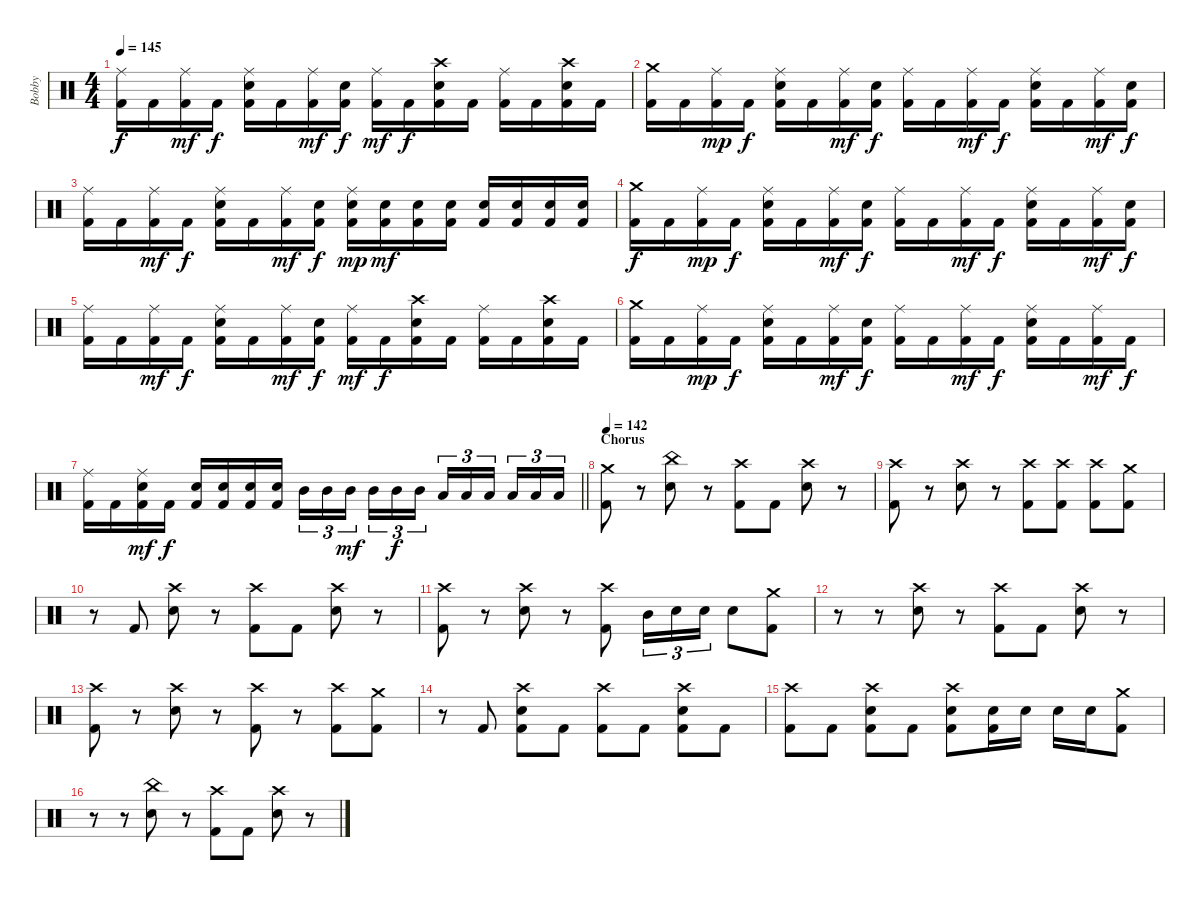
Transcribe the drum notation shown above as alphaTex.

\track ("Bobby" "Bobby") {instrument percussion}
\staff {score}
\articulation defaults
\ts (4 4)
\tempo 145
\clef neutral
\ks c
("Ride (middle)" "Kick (hit) 2").16{dy f} "Kick (hit) 2".16 ("Ride (middle)" "Kick (hit) 2").16{dy mf} "Kick (hit) 2".16{dy f} ("Ride (middle)" "Electric Snare (hit)" "Kick (hit) 2").16 "Kick (hit) 2".16 ("Ride (middle)" "Kick (hit) 2").16{dy mf} ("Electric Snare (hit)" "Kick (hit) 2").16{dy f} ("Ride (middle)" "Kick (hit) 2").16{dy mf} "Kick (hit) 2".16{dy f} ("Crash high (hit)" "Electric Snare (hit)" "Kick (hit) 2").16 "Kick (hit) 2".16 ("Ride (middle)" "Kick (hit) 2").16 "Kick (hit) 2".16 ("Crash high (hit)" "Electric Snare (hit)" "Kick (hit) 2").16 "Kick (hit) 2".16 |
("Crash medium (hit)" "Kick (hit) 2").16 "Kick (hit) 2".16 ("Ride (middle)" "Kick (hit) 2").16{dy mp} "Kick (hit) 2".16{dy f} ("Ride (middle)" "Electric Snare (hit)" "Kick (hit) 2").16 "Kick (hit) 2".16 ("Ride (middle)" "Kick (hit) 2").16{dy mf} ("Electric Snare (hit)" "Kick (hit) 2").16{dy f} ("Ride (middle)" "Kick (hit) 2").16 "Kick (hit) 2".16 ("Ride (middle)" "Kick (hit) 2").16{dy mf} "Kick (hit) 2".16{dy f} ("Ride (middle)" "Electric Snare (hit)" "Kick (hit) 2").16 "Kick (hit) 2".16 ("Ride (middle)" "Kick (hit) 2").16{dy mf} ("Electric Snare (hit)" "Kick (hit) 2").16{dy f} |
("Ride (middle)" "Kick (hit) 2").16 "Kick (hit) 2".16 ("Ride (middle)" "Kick (hit) 2").16{dy mf} "Kick (hit) 2".16{dy f} ("Ride (middle)" "Electric Snare (hit)" "Kick (hit) 2").16 "Kick (hit) 2".16 ("Ride (middle)" "Kick (hit) 2").16{dy mf} ("Electric Snare (hit)" "Kick (hit) 2").16{dy f} ("Ride (middle)" "Electric Snare (hit)" "Kick (hit) 2").16{dy mp} ("Electric Snare (hit)" "Kick (hit) 2").16{dy mf} ("Electric Snare (hit)" "Kick (hit) 2").16 ("Electric Snare (hit)" "Kick (hit) 2").16 ("Electric Snare (hit)" "Kick (hit) 2").16 ("Electric Snare (hit)" "Kick (hit) 2").16 ("Electric Snare (hit)" "Kick (hit) 2").16 ("Electric Snare (hit)" "Kick (hit) 2").16 |
("Crash medium (hit)" "Kick (hit) 2").16{dy f} "Kick (hit) 2".16 ("Ride (middle)" "Kick (hit) 2").16{dy mp} "Kick (hit) 2".16{dy f} ("Ride (middle)" "Electric Snare (hit)" "Kick (hit) 2").16 "Kick (hit) 2".16 ("Ride (middle)" "Kick (hit) 2").16{dy mf} ("Electric Snare (hit)" "Kick (hit) 2").16{dy f} ("Ride (middle)" "Kick (hit) 2").16 "Kick (hit) 2".16 ("Ride (middle)" "Kick (hit) 2").16{dy mf} "Kick (hit) 2".16{dy f} ("Ride (middle)" "Electric Snare (hit)" "Kick (hit) 2").16 "Kick (hit) 2".16 ("Ride (middle)" "Kick (hit) 2").16{dy mf} ("Electric Snare (hit)" "Kick (hit) 2").16{dy f} |
("Ride (middle)" "Kick (hit) 2").16 "Kick (hit) 2".16 ("Ride (middle)" "Kick (hit) 2").16{dy mf} "Kick (hit) 2".16{dy f} ("Ride (middle)" "Electric Snare (hit)" "Kick (hit) 2").16 "Kick (hit) 2".16 ("Ride (middle)" "Kick (hit) 2").16{dy mf} ("Electric Snare (hit)" "Kick (hit) 2").16{dy f} ("Ride (middle)" "Kick (hit) 2").16{dy mf} "Kick (hit) 2".16{dy f} ("Crash high (hit)" "Electric Snare (hit)" "Kick (hit) 2").16 "Kick (hit) 2".16 ("Ride (middle)" "Kick (hit) 2").16 "Kick (hit) 2".16 ("Crash high (hit)" "Electric Snare (hit)" "Kick (hit) 2").16 "Kick (hit) 2".16 |
("Crash medium (hit)" "Kick (hit) 2").16 "Kick (hit) 2".16 ("Ride (middle)" "Kick (hit) 2").16{dy mp} "Kick (hit) 2".16{dy f} ("Ride (middle)" "Electric Snare (hit)" "Kick (hit) 2").16 "Kick (hit) 2".16 ("Ride (middle)" "Kick (hit) 2").16{dy mf} ("Electric Snare (hit)" "Kick (hit) 2").16{dy f} ("Ride (middle)" "Kick (hit) 2").16 "Kick (hit) 2".16 ("Ride (middle)" "Kick (hit) 2").16{dy mf} "Kick (hit) 2".16{dy f} ("Ride (middle)" "Electric Snare (hit)" "Kick (hit) 2").16 "Kick (hit) 2".16 ("Ride (middle)" "Kick (hit) 2").16{dy mf} "Kick (hit) 2".16{dy f} |
\barLineRight lightlight
("Ride (middle)" "Kick (hit) 2").16 "Kick (hit) 2".16 ("Ride (middle)" "Electric Snare (hit)" "Kick (hit) 2").16{dy mf} "Kick (hit) 2".16{dy f} ("Electric Snare (hit)" "Kick (hit) 2").16 ("Electric Snare (hit)" "Kick (hit) 2").16 ("Electric Snare (hit)" "Kick (hit) 2").16 ("Electric Snare (hit)" "Kick (hit) 2").16 "Mid Tom (hit)".16{tu (3 2)} "Mid Tom (hit)".16{tu (3 2)} "Mid Tom (hit)".16{tu (3 2) dy mf beam splitsecondary} "Mid Tom (hit)".16{tu (3 2)} "Mid Tom (hit)".16{tu (3 2) dy f} "Mid Tom (hit)".16{tu (3 2)} "Low Tom (hit)".16{tu (3 2)} "Low Tom (hit)".16{tu (3 2)} "Low Tom (hit)".16{tu (3 2) beam splitsecondary} "Low Tom (hit)".16{tu (3 2)} "Low Tom (hit)".16{tu (3 2)} "Low Tom (hit)".16{tu (3 2)} |
\section ("" "Chorus")
\tempo 130
\tempo 142
("Crash medium (hit)" "Kick (hit) 2").8 r.8 ("China (hit)" "Electric Snare (hit)").8 r.8 ("Crash high (hit)" "Kick (hit) 2").8 "Kick (hit) 2".8 ("Crash high (hit)" "Electric Snare (hit)").8 r.8 |
("Crash high (hit)" "Kick (hit) 2").8 r.8 ("Crash high (hit)" "Electric Snare (hit)").8 r.8 ("Crash high (hit)" "Kick (hit) 2").8 ("Crash high (hit)" "Kick (hit) 2").8 ("Crash high (hit)" "Kick (hit) 2").8 ("Crash medium (hit)" "Kick (hit) 2").8 |
r.8 "Kick (hit) 2".8 ("Crash high (hit)" "Electric Snare (hit)").8 r.8 ("Crash high (hit)" "Kick (hit) 2").8 "Kick (hit) 2".8 ("Crash high (hit)" "Electric Snare (hit)").8 r.8 |
("Crash high (hit)" "Kick (hit) 2").8 r.8 ("Crash high (hit)" "Electric Snare (hit)").8 r.8 ("Crash high (hit)" "Kick (hit) 2").8 "Mid Tom (hit)".16{tu (3 2)} "Electric Snare (hit)".16{tu (3 2)} "Electric Snare (hit)".16{tu (3 2)} "Electric Snare (hit)".8 ("Crash medium (hit)" "Kick (hit) 2").8 |
r.8 r.8 ("Crash high (hit)" "Electric Snare (hit)").8 r.8 ("Crash high (hit)" "Kick (hit) 2").8 "Kick (hit) 2".8 ("Crash high (hit)" "Electric Snare (hit)").8 r.8 |
("Crash high (hit)" "Kick (hit) 2").8 r.8 ("Crash high (hit)" "Electric Snare (hit)").8 r.8 ("Crash high (hit)" "Kick (hit) 2").8 r.8 ("Crash high (hit)" "Kick (hit) 2").8 ("Crash medium (hit)" "Kick (hit) 2").8 |
r.8 "Kick (hit) 2".8 ("Crash high (hit)" "Electric Snare (hit)" "Kick (hit) 2").8 "Kick (hit) 2".8 ("Crash high (hit)" "Kick (hit) 2").8 "Kick (hit) 2".8 ("Crash high (hit)" "Electric Snare (hit)" "Kick (hit) 2").8 "Kick (hit) 2".8 |
("Crash high (hit)" "Kick (hit) 2").8 "Kick (hit) 2".8 ("Crash high (hit)" "Electric Snare (hit)" "Kick (hit) 2").8 "Kick (hit) 2".8 ("Crash high (hit)" "Electric Snare (hit)" "Kick (hit) 2").8 ("Electric Snare (hit)" "Kick (hit) 2").16 "Electric Snare (hit)".16 "Electric Snare (hit)".16 "Electric Snare (hit)".16 ("Crash medium (hit)" "Kick (hit) 2").8 |
r.8 r.8 ("China (hit)" "Electric Snare (hit)").8 r.8 ("Crash high (hit)" "Kick (hit) 2").8 "Kick (hit) 2".8 ("Crash high (hit)" "Electric Snare (hit)").8 r.8
